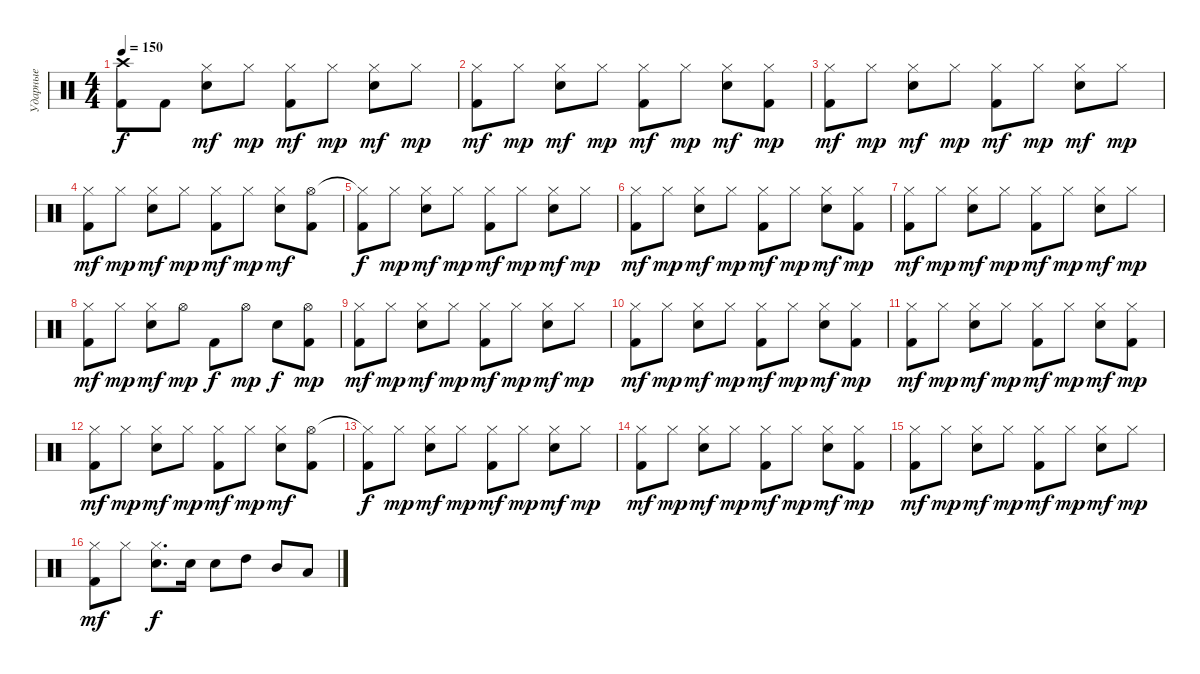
\track ("Ударные" "Ударные") {instrument percussion}
\staff {score}
\articulation defaults
\ts (4 4)
\tempo 150
\clef neutral
\ks c
("Crash high (hit)" "Kick (hit) 2").8{dy f} "Kick (hit) 2".8 ("Hi-Hat (closed)" "Electric Snare (hit)").8{dy mf} "Hi-Hat (closed)".8{dy mp} ("Hi-Hat (closed)" "Kick (hit) 2").8{dy mf} "Hi-Hat (closed)".8{dy mp} ("Hi-Hat (closed)" "Electric Snare (hit)").8{dy mf} "Hi-Hat (closed)".8{dy mp} |
("Hi-Hat (closed)" "Kick (hit) 2").8{dy mf} "Hi-Hat (closed)".8{dy mp} ("Hi-Hat (closed)" "Electric Snare (hit)").8{dy mf} "Hi-Hat (closed)".8{dy mp} ("Hi-Hat (closed)" "Kick (hit) 2").8{dy mf} "Hi-Hat (closed)".8{dy mp} ("Hi-Hat (closed)" "Electric Snare (hit)").8{dy mf} ("Hi-Hat (closed)" "Kick (hit) 2").8{dy mp} |
("Hi-Hat (closed)" "Kick (hit) 2").8{dy mf} "Hi-Hat (closed)".8{dy mp} ("Hi-Hat (closed)" "Electric Snare (hit)").8{dy mf} "Hi-Hat (closed)".8{dy mp} ("Hi-Hat (closed)" "Kick (hit) 2").8{dy mf} "Hi-Hat (closed)".8{dy mp} ("Hi-Hat (closed)" "Electric Snare (hit)").8{dy mf} "Hi-Hat (closed)".8{dy mp} |
("Hi-Hat (closed)" "Kick (hit) 2").8{dy mf} "Hi-Hat (closed)".8{dy mp} ("Hi-Hat (closed)" "Electric Snare (hit)").8{dy mf} "Hi-Hat (closed)".8{dy mp} ("Hi-Hat (closed)" "Kick (hit) 2").8{dy mf} "Hi-Hat (closed)".8{dy mp} ("Hi-Hat (closed)" "Electric Snare (hit)").8{dy mf} ("Hi-Hat (open)" "Kick (hit) 2").8 |
("Hi-Hat (closed)"{t} "Kick (hit) 2").8{dy f} "Hi-Hat (closed)".8{dy mp} ("Hi-Hat (closed)" "Electric Snare (hit)").8{dy mf} "Hi-Hat (closed)".8{dy mp} ("Hi-Hat (closed)" "Kick (hit) 2").8{dy mf} "Hi-Hat (closed)".8{dy mp} ("Hi-Hat (closed)" "Electric Snare (hit)").8{dy mf} "Hi-Hat (closed)".8{dy mp} |
("Hi-Hat (closed)" "Kick (hit) 2").8{dy mf} "Hi-Hat (closed)".8{dy mp} ("Hi-Hat (closed)" "Electric Snare (hit)").8{dy mf} "Hi-Hat (closed)".8{dy mp} ("Hi-Hat (closed)" "Kick (hit) 2").8{dy mf} "Hi-Hat (closed)".8{dy mp} ("Hi-Hat (closed)" "Electric Snare (hit)").8{dy mf} ("Hi-Hat (closed)" "Kick (hit) 2").8{dy mp} |
("Hi-Hat (closed)" "Kick (hit) 2").8{dy mf} "Hi-Hat (closed)".8{dy mp} ("Hi-Hat (closed)" "Electric Snare (hit)").8{dy mf} "Hi-Hat (closed)".8{dy mp} ("Hi-Hat (closed)" "Kick (hit) 2").8{dy mf} "Hi-Hat (closed)".8{dy mp} ("Hi-Hat (closed)" "Electric Snare (hit)").8{dy mf} "Hi-Hat (closed)".8{dy mp} |
("Hi-Hat (closed)" "Kick (hit) 2").8{dy mf} "Hi-Hat (closed)".8{dy mp} ("Hi-Hat (closed)" "Electric Snare (hit)").8{dy mf} "Hi-Hat (open)".8{dy mp} "Kick (hit) 2".8{dy f} "Hi-Hat (open)".8{dy mp} "Electric Snare (hit)".8{dy f} ("Hi-Hat (open)" "Kick (hit) 2").8{dy mp} |
("Hi-Hat (closed)" "Kick (hit) 2").8{dy mf} "Hi-Hat (closed)".8{dy mp} ("Hi-Hat (closed)" "Electric Snare (hit)").8{dy mf} "Hi-Hat (closed)".8{dy mp} ("Hi-Hat (closed)" "Kick (hit) 2").8{dy mf} "Hi-Hat (closed)".8{dy mp} ("Hi-Hat (closed)" "Electric Snare (hit)").8{dy mf} "Hi-Hat (closed)".8{dy mp} |
("Hi-Hat (closed)" "Kick (hit) 2").8{dy mf} "Hi-Hat (closed)".8{dy mp} ("Hi-Hat (closed)" "Electric Snare (hit)").8{dy mf} "Hi-Hat (closed)".8{dy mp} ("Hi-Hat (closed)" "Kick (hit) 2").8{dy mf} "Hi-Hat (closed)".8{dy mp} ("Hi-Hat (closed)" "Electric Snare (hit)").8{dy mf} ("Hi-Hat (closed)" "Kick (hit) 2").8{dy mp} |
("Hi-Hat (closed)" "Kick (hit) 2").8{dy mf} "Hi-Hat (closed)".8{dy mp} ("Hi-Hat (closed)" "Electric Snare (hit)").8{dy mf} "Hi-Hat (closed)".8{dy mp} ("Hi-Hat (closed)" "Kick (hit) 2").8{dy mf} "Hi-Hat (closed)".8{dy mp} ("Hi-Hat (closed)" "Electric Snare (hit)").8{dy mf} ("Hi-Hat (closed)" "Kick (hit) 2").8{dy mp} |
("Hi-Hat (closed)" "Kick (hit) 2").8{dy mf} "Hi-Hat (closed)".8{dy mp} ("Hi-Hat (closed)" "Electric Snare (hit)").8{dy mf} "Hi-Hat (closed)".8{dy mp} ("Hi-Hat (closed)" "Kick (hit) 2").8{dy mf} "Hi-Hat (closed)".8{dy mp} ("Hi-Hat (closed)" "Electric Snare (hit)").8{dy mf} ("Hi-Hat (open)" "Kick (hit) 2").8 |
("Hi-Hat (closed)"{t} "Kick (hit) 2").8{dy f} "Hi-Hat (closed)".8{dy mp} ("Hi-Hat (closed)" "Electric Snare (hit)").8{dy mf} "Hi-Hat (closed)".8{dy mp} ("Hi-Hat (closed)" "Kick (hit) 2").8{dy mf} "Hi-Hat (closed)".8{dy mp} ("Hi-Hat (closed)" "Electric Snare (hit)").8{dy mf} "Hi-Hat (closed)".8{dy mp} |
("Hi-Hat (closed)" "Kick (hit) 2").8{dy mf} "Hi-Hat (closed)".8{dy mp} ("Hi-Hat (closed)" "Electric Snare (hit)").8{dy mf} "Hi-Hat (closed)".8{dy mp} ("Hi-Hat (closed)" "Kick (hit) 2").8{dy mf} "Hi-Hat (closed)".8{dy mp} ("Hi-Hat (closed)" "Electric Snare (hit)").8{dy mf} ("Hi-Hat (closed)" "Kick (hit) 2").8{dy mp} |
("Hi-Hat (closed)" "Kick (hit) 2").8{dy mf} "Hi-Hat (closed)".8{dy mp} ("Hi-Hat (closed)" "Electric Snare (hit)").8{dy mf} "Hi-Hat (closed)".8{dy mp} ("Hi-Hat (closed)" "Kick (hit) 2").8{dy mf} "Hi-Hat (closed)".8{dy mp} ("Hi-Hat (closed)" "Electric Snare (hit)").8{dy mf} "Hi-Hat (closed)".8{dy mp} |
("Hi-Hat (closed)" "Kick (hit) 2").8{dy mf} "Hi-Hat (closed)".8 ("Hi-Hat (closed)" "Electric Snare (hit)").8{d dy f} "Electric Snare (hit)".16 "Electric Snare (hit)".8 "High Tom (hit)".8 "Mid Tom (hit)".8 "Low Tom (hit)".8
